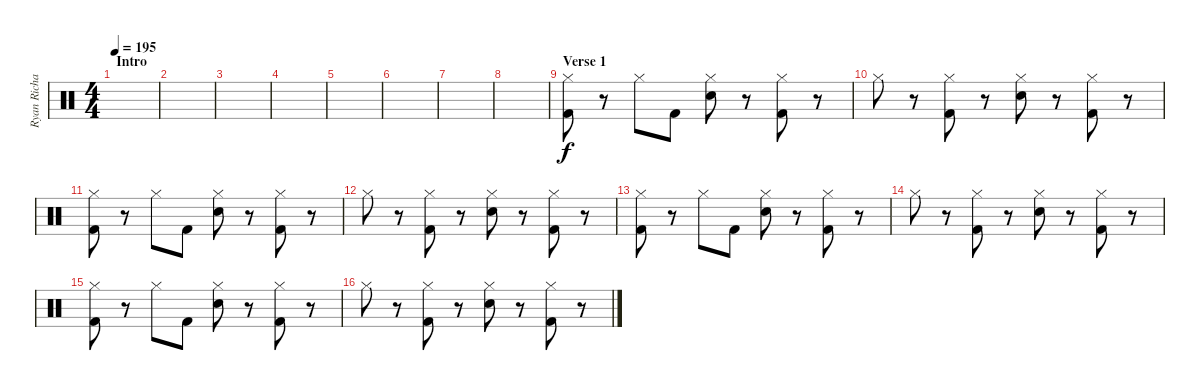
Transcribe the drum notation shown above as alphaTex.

\track ("Ryan Richards" "Ryan Richa") {instrument percussion}
\staff {score}
\articulation defaults
\ts (4 4)
\section ("" "Intro")
\tempo 195
\clef neutral
\ks c
|
|
|
|
|
|
|
|
\section ("" "Verse 1")
("Kick (hit) 2" "Hi-Hat (closed)").8 r.8 "Hi-Hat (closed)".8 "Kick (hit) 2".8 ("Hi-Hat (closed)" "Snare (hit) 2").8 r.8 ("Kick (hit) 2" "Hi-Hat (closed)").8 r.8 |
"Hi-Hat (closed)".8 r.8 ("Kick (hit) 2" "Hi-Hat (closed)").8 r.8 ("Hi-Hat (closed)" "Snare (hit) 2").8 r.8 ("Kick (hit) 2" "Hi-Hat (closed)").8 r.8 |
("Kick (hit) 2" "Hi-Hat (closed)").8 r.8 "Hi-Hat (closed)".8 "Kick (hit) 2".8 ("Hi-Hat (closed)" "Snare (hit) 2").8 r.8 ("Kick (hit) 2" "Hi-Hat (closed)").8 r.8 |
"Hi-Hat (closed)".8 r.8 ("Kick (hit) 2" "Hi-Hat (closed)").8 r.8 ("Hi-Hat (closed)" "Snare (hit) 2").8 r.8 ("Kick (hit) 2" "Hi-Hat (closed)").8 r.8 |
("Kick (hit) 2" "Hi-Hat (closed)").8 r.8 "Hi-Hat (closed)".8 "Kick (hit) 2".8 ("Hi-Hat (closed)" "Snare (hit) 2").8 r.8 ("Kick (hit) 2" "Hi-Hat (closed)").8 r.8 |
"Hi-Hat (closed)".8 r.8 ("Kick (hit) 2" "Hi-Hat (closed)").8 r.8 ("Hi-Hat (closed)" "Snare (hit) 2").8 r.8 ("Kick (hit) 2" "Hi-Hat (closed)").8 r.8 |
("Kick (hit) 2" "Hi-Hat (closed)").8 r.8 "Hi-Hat (closed)".8 "Kick (hit) 2".8 ("Hi-Hat (closed)" "Snare (hit) 2").8 r.8 ("Kick (hit) 2" "Hi-Hat (closed)").8 r.8 |
"Hi-Hat (closed)".8 r.8 ("Kick (hit) 2" "Hi-Hat (closed)").8 r.8 ("Hi-Hat (closed)" "Snare (hit) 2").8 r.8 ("Kick (hit) 2" "Hi-Hat (closed)").8 r.8
